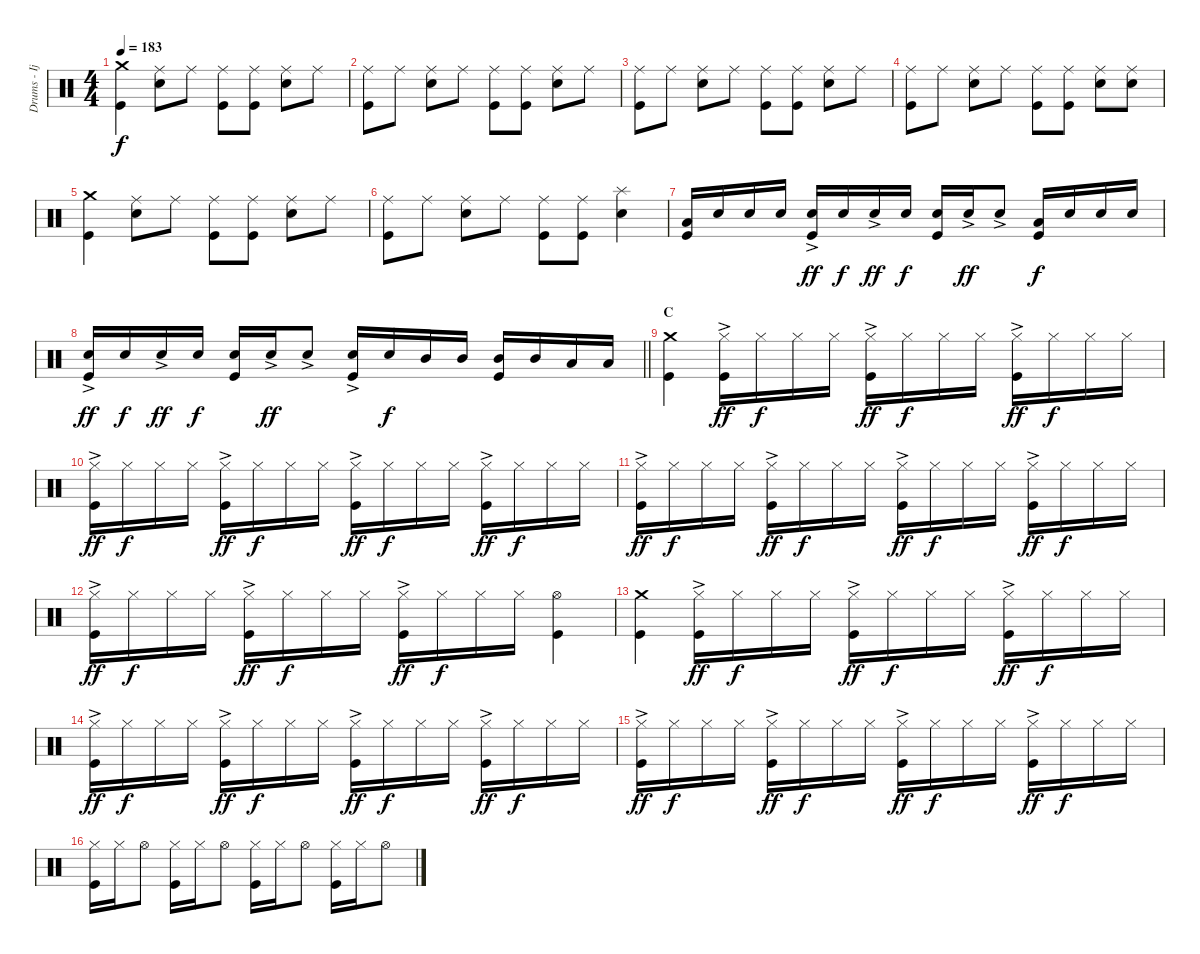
\track ("Drums - Ijichi" "Drums - Ij") {instrument percussion}
\staff {score}
\articulation defaults
\ts (4 4)
\tempo 183
\clef neutral
\ks c
("Crash medium (hit)" "Kick (hit)").4{dy f} ("Ride (middle)" "Electric Snare (hit)").8 "Ride (middle)".8 ("Ride (middle)" "Kick (hit)").8 ("Ride (middle)" "Kick (hit)").8 ("Ride (middle)" "Electric Snare (hit)").8 "Ride (middle)".8 |
("Ride (middle)" "Kick (hit)").8 "Ride (middle)".8 ("Ride (middle)" "Electric Snare (hit)").8 "Ride (middle)".8 ("Ride (middle)" "Kick (hit)").8 ("Ride (middle)" "Kick (hit)").8 ("Ride (middle)" "Electric Snare (hit)").8 "Ride (middle)".8 |
("Ride (middle)" "Kick (hit)").8 "Ride (middle)".8 ("Ride (middle)" "Electric Snare (hit)").8 "Ride (middle)".8 ("Ride (middle)" "Kick (hit)").8 ("Ride (middle)" "Kick (hit)").8 ("Ride (middle)" "Electric Snare (hit)").8 "Ride (middle)".8 |
("Ride (middle)" "Kick (hit)").8 "Ride (middle)".8 ("Ride (middle)" "Electric Snare (hit)").8 "Ride (middle)".8 ("Ride (middle)" "Kick (hit)").8 ("Ride (middle)" "Kick (hit)").8 ("Ride (middle)" "Electric Snare (hit)").8 ("Ride (middle)" "Electric Snare (hit)").8 |
("Crash medium (hit)" "Kick (hit)").4 ("Ride (middle)" "Electric Snare (hit)").8 "Ride (middle)".8 ("Ride (middle)" "Kick (hit)").8 ("Ride (middle)" "Kick (hit)").8 ("Ride (middle)" "Electric Snare (hit)").8 "Ride (middle)".8 |
("Ride (middle)" "Kick (hit)").8 "Ride (middle)".8 ("Ride (middle)" "Electric Snare (hit)").8 "Ride (middle)".8 ("Ride (middle)" "Kick (hit)").8 ("Ride (middle)" "Kick (hit)").8 ("Splash (hit)" "Electric Snare (hit)").4 |
("Low Tom (hit)" "Kick (hit)").16 "Electric Snare (hit)".16 "Electric Snare (hit)".16 "Electric Snare (hit)".16 ("Electric Snare (hit)"{ac} "Kick (hit)").16{dy ff} "Electric Snare (hit)".16{dy f} "Electric Snare (hit)"{ac}.16{dy ff} "Electric Snare (hit)".16{dy f} ("Electric Snare (hit)" "Kick (hit)").16 "Electric Snare (hit)"{ac}.16{dy ff} "Electric Snare (hit)"{ac}.8 ("Low Tom (hit)" "Kick (hit)").16{dy f} "Electric Snare (hit)".16 "Electric Snare (hit)".16 "Electric Snare (hit)".16 |
\barLineRight lightlight
("Electric Snare (hit)"{ac} "Kick (hit)").16{dy ff} "Electric Snare (hit)".16{dy f} "Electric Snare (hit)"{ac}.16{dy ff} "Electric Snare (hit)".16{dy f} ("Electric Snare (hit)" "Kick (hit)").16 "Electric Snare (hit)"{ac}.16{dy ff} "Electric Snare (hit)"{ac}.8 ("Electric Snare (hit)"{ac} "Kick (hit)").16 "Electric Snare (hit)".16{dy f} "Mid Tom (hit)".16 "Mid Tom (hit)".16 ("Mid Tom (hit)" "Kick (hit)").16 "Mid Tom (hit)".16 "Low Tom (hit)".16 "Low Tom (hit)".16 |
\section ("" "C")
("Crash medium (hit)" "Kick (hit)").4 ("Hi-Hat (closed)"{ac} "Kick (hit)").16{dy ff} "Hi-Hat (closed)".16{dy f} "Hi-Hat (closed)".16 "Hi-Hat (closed)".16 ("Hi-Hat (closed)"{ac} "Kick (hit)").16{dy ff} "Hi-Hat (closed)".16{dy f} "Hi-Hat (closed)".16 "Hi-Hat (closed)".16 ("Hi-Hat (closed)"{ac} "Kick (hit)").16{dy ff} "Hi-Hat (closed)".16{dy f} "Hi-Hat (closed)".16 "Hi-Hat (closed)".16 |
("Hi-Hat (closed)"{ac} "Kick (hit)").16{dy ff} "Hi-Hat (closed)".16{dy f} "Hi-Hat (closed)".16 "Hi-Hat (closed)".16 ("Hi-Hat (closed)"{ac} "Kick (hit)").16{dy ff} "Hi-Hat (closed)".16{dy f} "Hi-Hat (closed)".16 "Hi-Hat (closed)".16 ("Hi-Hat (closed)"{ac} "Kick (hit)").16{dy ff} "Hi-Hat (closed)".16{dy f} "Hi-Hat (closed)".16 "Hi-Hat (closed)".16 ("Hi-Hat (closed)"{ac} "Kick (hit)").16{dy ff} "Hi-Hat (closed)".16{dy f} "Hi-Hat (closed)".16 "Hi-Hat (closed)".16 |
("Hi-Hat (closed)"{ac} "Kick (hit)").16{dy ff} "Hi-Hat (closed)".16{dy f} "Hi-Hat (closed)".16 "Hi-Hat (closed)".16 ("Hi-Hat (closed)"{ac} "Kick (hit)").16{dy ff} "Hi-Hat (closed)".16{dy f} "Hi-Hat (closed)".16 "Hi-Hat (closed)".16 ("Hi-Hat (closed)"{ac} "Kick (hit)").16{dy ff} "Hi-Hat (closed)".16{dy f} "Hi-Hat (closed)".16 "Hi-Hat (closed)".16 ("Hi-Hat (closed)"{ac} "Kick (hit)").16{dy ff} "Hi-Hat (closed)".16{dy f} "Hi-Hat (closed)".16 "Hi-Hat (closed)".16 |
("Hi-Hat (closed)"{ac} "Kick (hit)").16{dy ff} "Hi-Hat (closed)".16{dy f} "Hi-Hat (closed)".16 "Hi-Hat (closed)".16 ("Hi-Hat (closed)"{ac} "Kick (hit)").16{dy ff} "Hi-Hat (closed)".16{dy f} "Hi-Hat (closed)".16 "Hi-Hat (closed)".16 ("Hi-Hat (closed)"{ac} "Kick (hit)").16{dy ff} "Hi-Hat (closed)".16{dy f} "Hi-Hat (closed)".16 "Hi-Hat (closed)".16 ("Hi-Hat (open)" "Kick (hit)").4 |
("Crash medium (hit)" "Kick (hit)").4 ("Hi-Hat (closed)"{ac} "Kick (hit)").16{dy ff} "Hi-Hat (closed)".16{dy f} "Hi-Hat (closed)".16 "Hi-Hat (closed)".16 ("Hi-Hat (closed)"{ac} "Kick (hit)").16{dy ff} "Hi-Hat (closed)".16{dy f} "Hi-Hat (closed)".16 "Hi-Hat (closed)".16 ("Hi-Hat (closed)"{ac} "Kick (hit)").16{dy ff} "Hi-Hat (closed)".16{dy f} "Hi-Hat (closed)".16 "Hi-Hat (closed)".16 |
("Hi-Hat (closed)"{ac} "Kick (hit)").16{dy ff} "Hi-Hat (closed)".16{dy f} "Hi-Hat (closed)".16 "Hi-Hat (closed)".16 ("Hi-Hat (closed)"{ac} "Kick (hit)").16{dy ff} "Hi-Hat (closed)".16{dy f} "Hi-Hat (closed)".16 "Hi-Hat (closed)".16 ("Hi-Hat (closed)"{ac} "Kick (hit)").16{dy ff} "Hi-Hat (closed)".16{dy f} "Hi-Hat (closed)".16 "Hi-Hat (closed)".16 ("Hi-Hat (closed)"{ac} "Kick (hit)").16{dy ff} "Hi-Hat (closed)".16{dy f} "Hi-Hat (closed)".16 "Hi-Hat (closed)".16 |
("Hi-Hat (closed)"{ac} "Kick (hit)").16{dy ff} "Hi-Hat (closed)".16{dy f} "Hi-Hat (closed)".16 "Hi-Hat (closed)".16 ("Hi-Hat (closed)"{ac} "Kick (hit)").16{dy ff} "Hi-Hat (closed)".16{dy f} "Hi-Hat (closed)".16 "Hi-Hat (closed)".16 ("Hi-Hat (closed)"{ac} "Kick (hit)").16{dy ff} "Hi-Hat (closed)".16{dy f} "Hi-Hat (closed)".16 "Hi-Hat (closed)".16 ("Hi-Hat (closed)"{ac} "Kick (hit)").16{dy ff} "Hi-Hat (closed)".16{dy f} "Hi-Hat (closed)".16 "Hi-Hat (closed)".16 |
("Hi-Hat (closed)" "Kick (hit)").16 "Hi-Hat (closed)".16 "Hi-Hat (open)".8 ("Hi-Hat (closed)" "Kick (hit)").16 "Hi-Hat (closed)".16 "Hi-Hat (open)".8 ("Hi-Hat (closed)" "Kick (hit)").16 "Hi-Hat (closed)".16 "Hi-Hat (open)".8 ("Hi-Hat (closed)" "Kick (hit)").16 "Hi-Hat (closed)".16 "Hi-Hat (open)".8
